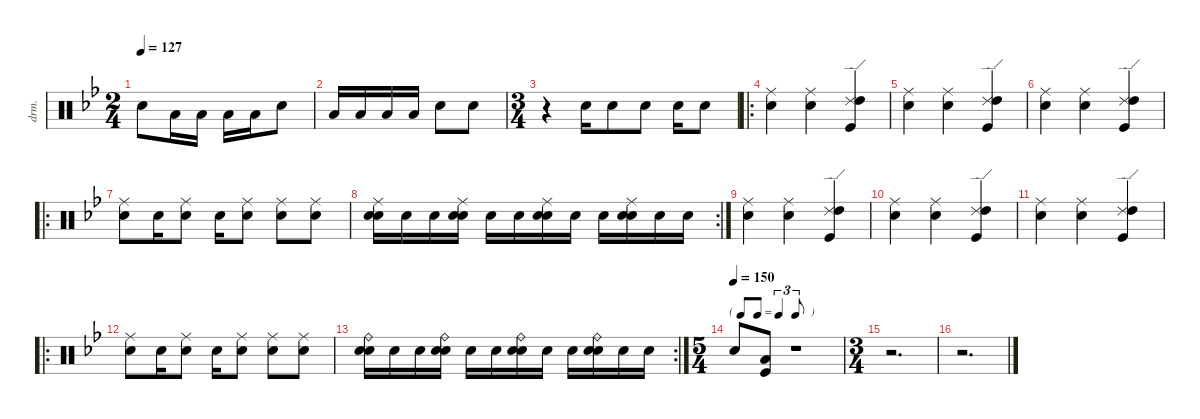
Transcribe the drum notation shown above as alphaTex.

\defaultSystemsLayout 4
\hideDynamics
\bracketExtendMode nobrackets
\otherSystemsTrackNameOrientation horizontal
\track ("Drums" "drm.") {defaultSystemsLayout 4 instrument percussion}
\staff {score}
\articulation defaults
\ts (2 4)
\tempo 127
\clef neutral
\ks gminor "Snare (hit) 2"{acc forcenatural}.8{dy mp beam Down} "Low Tom (hit)"{acc forcenatural}.16{beam Down} "Low Tom (hit)"{acc forcenatural}.16{beam Down} "Low Tom (hit)"{acc forcenatural}.16{beam Down} "Low Tom (hit)"{acc forcenatural}.16{beam Down} "Snare (hit) 2"{acc forcenatural}.8{beam Down}
|
"Low Tom (hit)"{acc forcenatural}.16{beam Up} "Low Tom (hit)"{acc forcenatural}.16{beam Up} "Low Tom (hit)"{acc forcenatural}.16{beam Up} "Low Tom (hit)"{acc forcenatural}.16{beam Up} "Snare (hit) 2"{acc forcenatural}.8{beam Down} "Snare (hit) 2"{acc forcenatural}.8{beam Down} |
\ts (3 4)
\beaming (8 2 2 2)
r.4{beam Down} "Snare (hit) 2"{acc forcenatural}.16{beam Down} "Snare (hit) 2"{acc forcenatural}.8{beam Down} "Snare (hit) 2"{acc forcenatural}.8{beam Down} "Snare (hit) 2"{acc forcenatural}.16{beam Down} "Snare (hit) 2"{acc forcenatural}.8{beam Down} |
\ro
("Ride (middle)"{acc forcenatural} "Snare (hit) 2"{acc forcenatural}).4{beam Down} ("Ride (middle)"{acc forcenatural} "Snare (hit) 2"{acc forcenatural}).4{beam Down} ("Ride (edge) 2"{acc forcenatural} "High Tom (hit)"{acc forcenatural} "Kick (hit)"{acc forcenatural}).4{beam Up} |
("Ride (middle)"{acc forcenatural} "Snare (hit) 2"{acc forcenatural}).4{beam Down} ("Ride (middle)"{acc forcenatural} "Snare (hit) 2"{acc forcenatural}).4{beam Down} ("Ride (edge) 2"{acc forcenatural} "High Tom (hit)"{acc forcenatural} "Kick (hit)"{acc forcenatural}).4{beam Up} |
("Ride (middle)"{acc forcenatural} "Snare (hit) 2"{acc forcenatural}).4{beam Down} ("Ride (middle)"{acc forcenatural} "Snare (hit) 2"{acc forcenatural}).4{beam Down} ("Ride (edge) 2"{acc forcenatural} "High Tom (hit)"{acc forcenatural} "Kick (hit)"{acc forcenatural}).4{beam Up} |
\ro
("Ride (middle)"{acc forcenatural} "Snare (hit) 2"{acc forcenatural}).8{beam Down} "Snare (hit) 2"{acc forcenatural}.16{beam Down} ("Ride (middle)"{acc forcenatural} "Snare (hit) 2"{acc forcenatural}).8{beam Down} "Snare (hit) 2"{acc forcenatural}.16{beam Down} ("Ride (middle)"{acc forcenatural} "Snare (hit) 2"{acc forcenatural}).8{beam Down} ("Ride (middle)"{acc forcenatural} "Snare (hit) 2"{acc forcenatural}).8{beam Down} ("Ride (middle)"{acc forcenatural} "Snare (hit) 2"{acc forcenatural}).8{beam Down} |
\rc 2
("Ride (middle)"{acc forcenatural} "Snare (hit) 2"{acc forcenatural} "Snare (hit) 2"{acc forcenatural}).16{beam Down} "Snare (hit) 2"{acc forcenatural}.16{beam Down} "Snare (hit) 2"{acc forcenatural}.16{beam Down} ("Ride (middle)"{acc forcenatural} "Snare (hit) 2"{acc forcenatural} "Snare (hit) 2"{acc forcenatural}).16{beam Down} "Snare (hit) 2"{acc forcenatural}.16{beam Down} "Snare (hit) 2"{acc forcenatural}.16{beam Down} ("Ride (middle)"{acc forcenatural} "Snare (hit) 2"{acc forcenatural} "Snare (hit) 2"{acc forcenatural}).16{beam Down} "Snare (hit) 2"{acc forcenatural}.16{beam Down} "Snare (hit) 2"{acc forcenatural}.16{beam Down} ("Ride (middle)"{acc forcenatural} "Snare (hit) 2"{acc forcenatural} "Snare (hit) 2"{acc forcenatural}).16{beam Down} "Snare (hit) 2"{acc forcenatural}.16{beam Down} "Snare (hit) 2"{acc forcenatural}.16{beam Down} |
("Ride (middle)"{acc forcenatural} "Snare (hit) 2"{acc forcenatural}).4{beam Down} ("Ride (middle)"{acc forcenatural} "Snare (hit) 2"{acc forcenatural}).4{beam Down} ("Ride (edge) 2"{acc forcenatural} "High Tom (hit)"{acc forcenatural} "Kick (hit)"{acc forcenatural}).4{beam Up} |
("Ride (middle)"{acc forcenatural} "Snare (hit) 2"{acc forcenatural}).4{beam Down} ("Ride (middle)"{acc forcenatural} "Snare (hit) 2"{acc forcenatural}).4{beam Down} ("Ride (edge) 2"{acc forcenatural} "High Tom (hit)"{acc forcenatural} "Kick (hit)"{acc forcenatural}).4{beam Up} |
("Ride (middle)"{acc forcenatural} "Snare (hit) 2"{acc forcenatural}).4{beam Down} ("Ride (middle)"{acc forcenatural} "Snare (hit) 2"{acc forcenatural}).4{beam Down} ("Ride (edge) 2"{acc forcenatural} "High Tom (hit)"{acc forcenatural} "Kick (hit)"{acc forcenatural}).4{beam Up} |
\ro
("Ride (middle)"{acc forcenatural} "Snare (hit) 2"{acc forcenatural}).8{beam Down} "Snare (hit) 2"{acc forcenatural}.16{beam Down} ("Ride (middle)"{acc forcenatural} "Snare (hit) 2"{acc forcenatural}).8{beam Down} "Snare (hit) 2"{acc forcenatural}.16{beam Down} ("Ride (middle)"{acc forcenatural} "Snare (hit) 2"{acc forcenatural}).8{beam Down} ("Ride (middle)"{acc forcenatural} "Snare (hit) 2"{acc forcenatural}).8{beam Down} ("Ride (middle)"{acc forcenatural} "Snare (hit) 2"{acc forcenatural}).8{beam Down} |
\rc 2
("Ride (bell)"{acc forcenatural} "Snare (hit) 2"{acc forcenatural} "Snare (hit) 2"{acc forcenatural}).16{beam Down} "Snare (hit) 2"{acc forcenatural}.16{beam Down} "Snare (hit) 2"{acc forcenatural}.16{beam Down} ("Ride (bell)"{acc forcenatural} "Snare (hit) 2"{acc forcenatural} "Snare (hit) 2"{acc forcenatural}).16{beam Down} "Snare (hit) 2"{acc forcenatural}.16{beam Down} "Snare (hit) 2"{acc forcenatural}.16{beam Down} ("Ride (bell)"{acc forcenatural} "Snare (hit) 2"{acc forcenatural} "Snare (hit) 2"{acc forcenatural}).16{beam Down} "Snare (hit) 2"{acc forcenatural}.16{beam Down} "Snare (hit) 2"{acc forcenatural}.16{beam Down} ("Ride (bell)"{acc forcenatural} "Snare (hit) 2"{acc forcenatural} "Snare (hit) 2"{acc forcenatural}).16{beam Down} "Snare (hit) 2"{acc forcenatural}.16{beam Down} "Snare (hit) 2"{acc forcenatural}.16{beam Down} |
\ts (5 4)
\beaming (8 2 2 2 4)
\tf triplet8th
\tempo (150)
"Snare (hit) 2"{acc forcenatural}.8{dy f beam Up} ("Low Floor Tom (hit)"{acc forcenatural} "Kick (hit)"{acc forcenatural}).8{beam Up} r.1{beam Down} |
\ts (3 4)
\beaming (8 2 2 2)
r.2{d beam Down} |
r.2{d beam Down}
